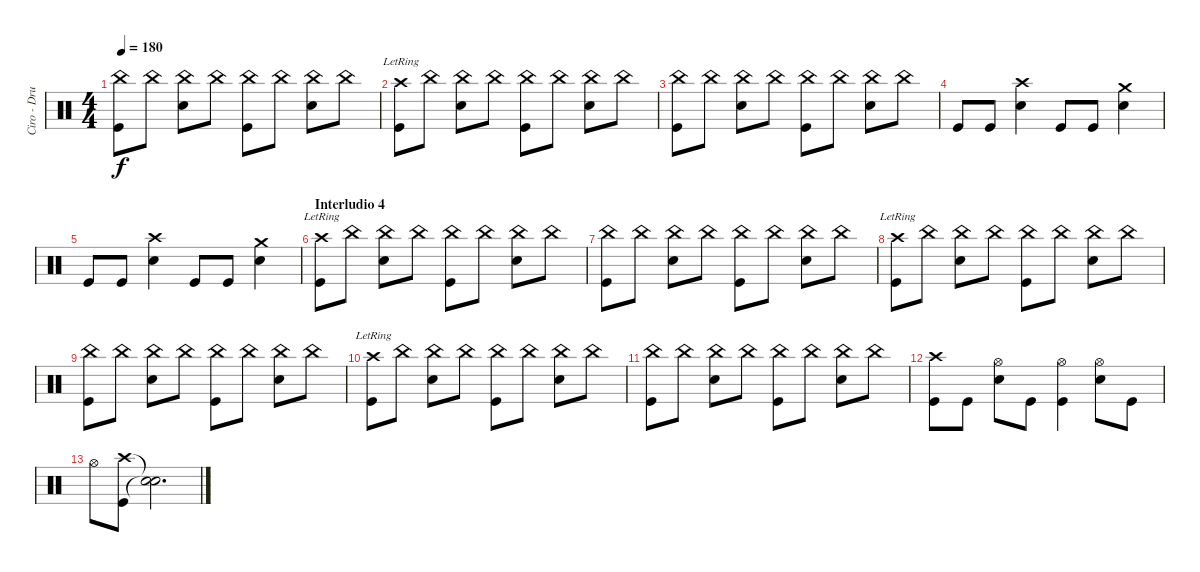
\track ("Ciro - Drums" "Ciro - Dru") {instrument percussion}
\staff {score}
\articulation defaults
\ts (4 4)
\tempo 180
\clef neutral
\ks c
("China (hit)" "Kick (hit)").8{dy f} "China (hit)".8 ("China (hit)" "Electric Snare (hit)").8 "China (hit)".8 ("China (hit)" "Kick (hit)").8 "China (hit)".8 ("China (hit)" "Electric Snare (hit)").8 "China (hit)".8 |
("Crash high (hit)"{lr} "Kick (hit)").8 "China (hit)".8 ("China (hit)" "Electric Snare (hit)").8 "China (hit)".8 ("China (hit)" "Kick (hit)").8 "China (hit)".8 ("China (hit)" "Electric Snare (hit)").8 "China (hit)".8 |
("China (hit)" "Kick (hit)").8 "China (hit)".8 ("China (hit)" "Electric Snare (hit)").8 "China (hit)".8 ("China (hit)" "Kick (hit)").8 "China (hit)".8 ("China (hit)" "Electric Snare (hit)").8 "China (hit)".8 |
"Kick (hit)".8 "Kick (hit)".8 ("Crash high (hit)" "Electric Snare (hit)").4 "Kick (hit)".8 "Kick (hit)".8 ("Crash medium (hit)" "Electric Snare (hit)").4 |
"Kick (hit)".8 "Kick (hit)".8 ("Crash high (hit)" "Electric Snare (hit)").4 "Kick (hit)".8 "Kick (hit)".8 ("Crash medium (hit)" "Electric Snare (hit)").4 |
\section ("" "Interludio 4")
("Crash high (hit)"{lr} "Kick (hit)").8 "China (hit)".8 ("China (hit)" "Electric Snare (hit)").8 "China (hit)".8 ("China (hit)" "Kick (hit)").8 "China (hit)".8 ("China (hit)" "Electric Snare (hit)").8 "China (hit)".8 |
("China (hit)" "Kick (hit)").8 "China (hit)".8 ("China (hit)" "Electric Snare (hit)").8 "China (hit)".8 ("China (hit)" "Kick (hit)").8 "China (hit)".8 ("China (hit)" "Electric Snare (hit)").8 "China (hit)".8 |
("Crash high (hit)"{lr} "Kick (hit)").8 "China (hit)".8 ("China (hit)" "Electric Snare (hit)").8 "China (hit)".8 ("China (hit)" "Kick (hit)").8 "China (hit)".8 ("China (hit)" "Electric Snare (hit)").8 "China (hit)".8 |
("China (hit)" "Kick (hit)").8 "China (hit)".8 ("China (hit)" "Electric Snare (hit)").8 "China (hit)".8 ("China (hit)" "Kick (hit)").8 "China (hit)".8 ("China (hit)" "Electric Snare (hit)").8 "China (hit)".8 |
("Crash high (hit)"{lr} "Kick (hit)").8 "China (hit)".8 ("China (hit)" "Electric Snare (hit)").8 "China (hit)".8 ("China (hit)" "Kick (hit)").8 "China (hit)".8 ("China (hit)" "Electric Snare (hit)").8 "China (hit)".8 |
("China (hit)" "Kick (hit)").8 "China (hit)".8 ("China (hit)" "Electric Snare (hit)").8 "China (hit)".8 ("China (hit)" "Kick (hit)").8 "China (hit)".8 ("China (hit)" "Electric Snare (hit)").8 "China (hit)".8 |
("Crash high (hit)" "Kick (hit)").8 "Kick (hit)".8 ("Hi-Hat (open)" "Electric Snare (hit)").8 "Kick (hit)".8 ("Hi-Hat (open)" "Kick (hit)").4 ("Hi-Hat (open)" "Electric Snare (hit)").8 "Kick (hit)".8 |
"Hi-Hat (open)".8 ("Crash high (hit)" "Kick (hit)").8 ("Snare (hit)"{t} "Snare (hit)"{t}).2{d}
